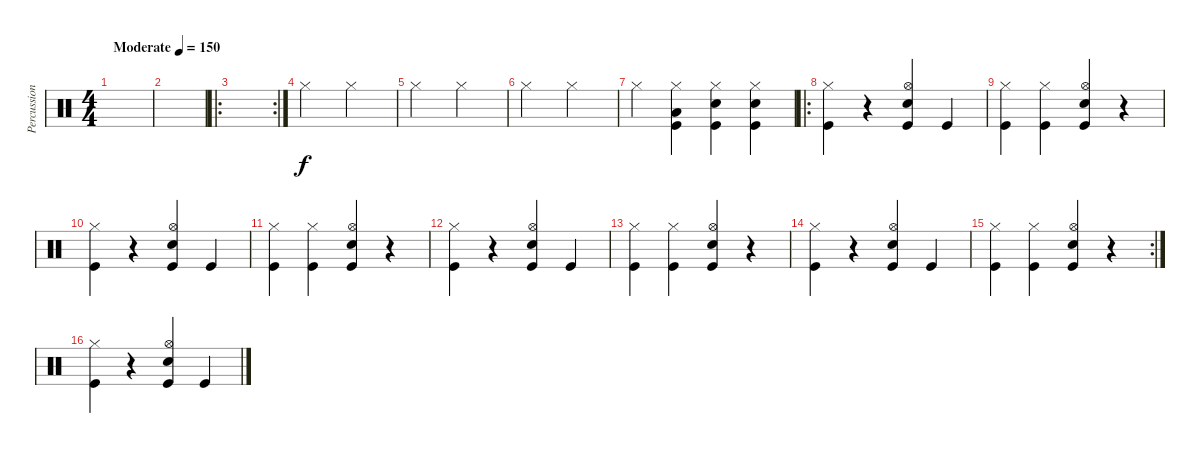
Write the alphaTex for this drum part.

\track ("Percussion" "Percussion") {instrument percussion}
\staff {score}
\articulation defaults
\ts (4 4)
\tempo (150 "Moderate")
\clef neutral
\ks c
|
|
\ro
\rc 2
|
"Hi-Hat (closed)".2 "Hi-Hat (closed)".2 |
"Hi-Hat (closed)".2 "Hi-Hat (closed)".2 |
"Hi-Hat (closed)".2 "Hi-Hat (closed)".2 |
"Hi-Hat (closed)".4 ("Hi-Hat (closed)" "Low Tom (hit)" "Kick (hit)").4 ("Hi-Hat (closed)" "Metronome (bell)" "Kick (hit)").4 ("Hi-Hat (closed)" "Metronome (bell)" "Kick (hit)").4 |
\ro
("Hi-Hat (closed)" "Kick (hit)").4 r.4 ("Hi-Hat (open)" "Kick (hit)" "Electric Snare (hit)").4 "Kick (hit)".4 |
("Hi-Hat (closed)" "Kick (hit)").4 ("Hi-Hat (closed)" "Kick (hit)").4 ("Hi-Hat (open)" "Kick (hit)" "Electric Snare (hit)").4 r.4 |
("Hi-Hat (closed)" "Kick (hit)").4 r.4 ("Hi-Hat (open)" "Kick (hit)" "Electric Snare (hit)").4 "Kick (hit)".4 |
("Hi-Hat (closed)" "Kick (hit)").4 ("Hi-Hat (closed)" "Kick (hit)").4 ("Hi-Hat (open)" "Kick (hit)" "Electric Snare (hit)").4 r.4 |
("Hi-Hat (closed)" "Kick (hit)").4 r.4 ("Hi-Hat (open)" "Kick (hit)" "Electric Snare (hit)").4 "Kick (hit)".4 |
("Hi-Hat (closed)" "Kick (hit)").4 ("Hi-Hat (closed)" "Kick (hit)").4 ("Hi-Hat (open)" "Kick (hit)" "Electric Snare (hit)").4 r.4 |
("Hi-Hat (closed)" "Kick (hit)").4 r.4 ("Hi-Hat (open)" "Kick (hit)" "Electric Snare (hit)").4 "Kick (hit)".4 |
\rc 2
("Hi-Hat (closed)" "Kick (hit)").4 ("Hi-Hat (closed)" "Kick (hit)").4 ("Hi-Hat (open)" "Kick (hit)" "Electric Snare (hit)").4 r.4 |
("Hi-Hat (closed)" "Kick (hit)").4 r.4 ("Hi-Hat (open)" "Kick (hit)" "Electric Snare (hit)").4 "Kick (hit)".4
